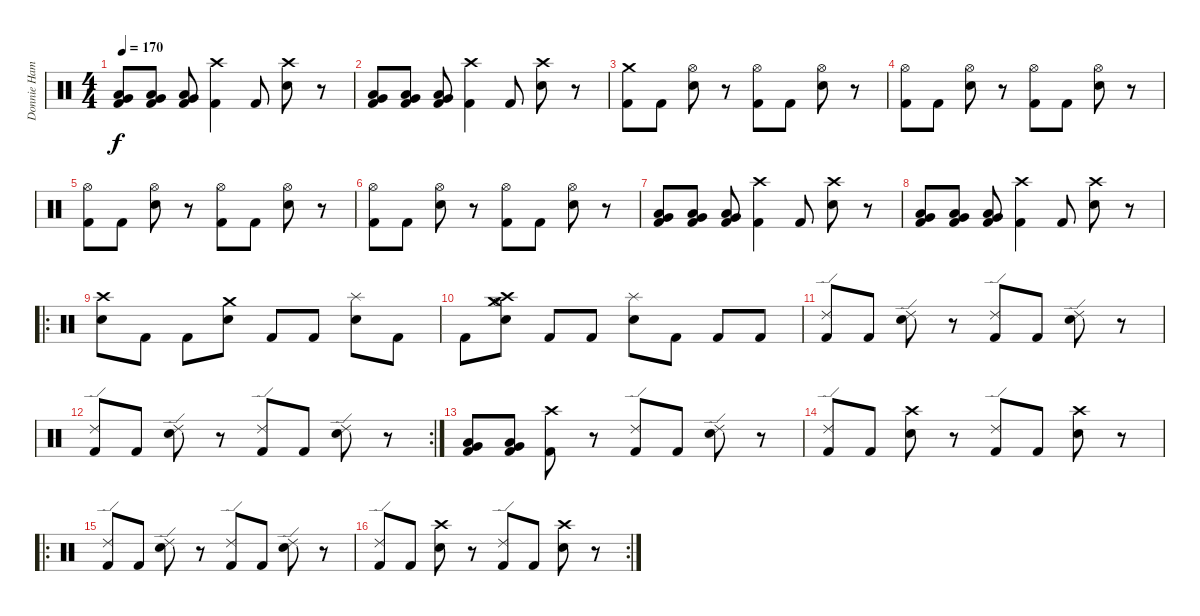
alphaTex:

\track ("Donnie Hamzik(Drums)" "Donnie Ham") {instrument percussion}
\staff {score}
\articulation defaults
\ts (4 4)
\tempo 170
\clef neutral
\ks c
("Kick (hit) 2" "Very Low Tom (hit)" "Low Floor Tom (hit)").8{dy f} ("Kick (hit) 2" "Very Low Tom (hit)" "Low Floor Tom (hit)").8 ("Kick (hit) 2" "Very Low Tom (hit)" "Low Floor Tom (hit)").8 ("Crash high (hit)" "Kick (hit) 2").4 "Kick (hit) 2".8 ("Crash high (hit)" "Snare (hit) 2").8 r.8 |
("Kick (hit) 2" "Very Low Tom (hit)" "Low Floor Tom (hit)").8 ("Kick (hit) 2" "Very Low Tom (hit)" "Low Floor Tom (hit)").8 ("Kick (hit) 2" "Very Low Tom (hit)" "Low Floor Tom (hit)").8 ("Crash high (hit)" "Kick (hit) 2").4 "Kick (hit) 2".8 ("Crash high (hit)" "Snare (hit) 2").8 r.8 |
("Crash medium (hit)" "Kick (hit) 2").8 "Kick (hit) 2".8 ("Hi-Hat (open)" "Snare (hit) 2").8 r.8 ("Hi-Hat (open)" "Kick (hit) 2").8 "Kick (hit) 2".8 ("Hi-Hat (open)" "Snare (hit) 2").8 r.8 |
("Hi-Hat (open)" "Kick (hit) 2").8 "Kick (hit) 2".8 ("Hi-Hat (open)" "Snare (hit) 2").8 r.8 ("Hi-Hat (open)" "Kick (hit) 2").8 "Kick (hit) 2".8 ("Hi-Hat (open)" "Snare (hit) 2").8 r.8 |
("Hi-Hat (open)" "Kick (hit) 2").8 "Kick (hit) 2".8 ("Hi-Hat (open)" "Snare (hit) 2").8 r.8 ("Hi-Hat (open)" "Kick (hit) 2").8 "Kick (hit) 2".8 ("Hi-Hat (open)" "Snare (hit) 2").8 r.8 |
("Hi-Hat (open)" "Kick (hit) 2").8 "Kick (hit) 2".8 ("Hi-Hat (open)" "Snare (hit) 2").8 r.8 ("Hi-Hat (open)" "Kick (hit) 2").8 "Kick (hit) 2".8 ("Hi-Hat (open)" "Snare (hit) 2").8 r.8 |
("Kick (hit) 2" "Very Low Tom (hit)" "Low Floor Tom (hit)").8 ("Kick (hit) 2" "Very Low Tom (hit)" "Low Floor Tom (hit)").8 ("Kick (hit) 2" "Very Low Tom (hit)" "Low Floor Tom (hit)").8 ("Crash high (hit)" "Kick (hit) 2").4 "Kick (hit) 2".8 ("Crash high (hit)" "Snare (hit) 2").8 r.8 |
("Kick (hit) 2" "Very Low Tom (hit)" "Low Floor Tom (hit)").8 ("Kick (hit) 2" "Very Low Tom (hit)" "Low Floor Tom (hit)").8 ("Kick (hit) 2" "Very Low Tom (hit)" "Low Floor Tom (hit)").8 ("Crash high (hit)" "Kick (hit) 2").4 "Kick (hit) 2".8 ("Crash high (hit)" "Snare (hit) 2").8 r.8 |
\ro
("Crash high (hit)" "Snare (hit) 2").8 "Kick (hit) 2".8 "Kick (hit) 2".8 ("Crash medium (hit)" "Snare (hit) 2").8 "Kick (hit) 2".8 "Kick (hit) 2".8 ("Splash (hit)" "Snare (hit) 2").8 "Kick (hit) 2".8 |
"Kick (hit) 2".8 ("Crash medium (hit)" "Crash high (hit)" "Hi-Hat (open)" "Snare (hit) 2").8 "Kick (hit) 2".8 "Kick (hit) 2".8 ("Splash (hit)" "Snare (hit) 2").8 "Kick (hit) 2".8 "Kick (hit) 2".8 "Kick (hit) 2".8 |
("Ride (edge) 2" "Kick (hit) 2").8 "Kick (hit) 2".8 ("Ride (edge) 2" "Snare (hit) 2").8 r.8 ("Ride (edge) 2" "Kick (hit) 2").8 "Kick (hit) 2".8 ("Ride (edge) 2" "Snare (hit) 2").8 r.8 |
\rc 2
("Ride (edge) 2" "Kick (hit) 2").8 "Kick (hit) 2".8 ("Ride (edge) 2" "Snare (hit) 2").8 r.8 ("Ride (edge) 2" "Kick (hit) 2").8 "Kick (hit) 2".8 ("Ride (edge) 2" "Snare (hit) 2").8 r.8 |
("Low Floor Tom (hit)" "Very Low Tom (hit)" "Kick (hit) 2").8 ("Very Low Tom (hit)" "Low Floor Tom (hit)" "Kick (hit) 2").8 ("Crash high (hit)" "Kick (hit) 2").8 r.8 ("Ride (edge) 2" "Kick (hit) 2").8 "Kick (hit) 2".8 ("Snare (hit) 2" "Ride (edge) 2").8 r.8 |
("Ride (edge) 2" "Kick (hit) 2").8 "Kick (hit) 2".8 ("Snare (hit) 2" "Crash high (hit)").8 r.8 ("Ride (edge) 2" "Kick (hit) 2").8 "Kick (hit) 2".8 ("Snare (hit) 2" "Crash high (hit)").8 r.8 |
\ro
("Ride (edge) 2" "Kick (hit) 2").8 "Kick (hit) 2".8 ("Snare (hit) 2" "Ride (edge) 2").8 r.8 ("Ride (edge) 2" "Kick (hit) 2").8 "Kick (hit) 2".8 ("Snare (hit) 2" "Ride (edge) 2").8 r.8 |
\rc 2
("Ride (edge) 2" "Kick (hit) 2").8 "Kick (hit) 2".8 ("Snare (hit) 2" "Crash high (hit)").8 r.8 ("Ride (edge) 2" "Kick (hit) 2").8 "Kick (hit) 2".8 ("Snare (hit) 2" "Crash high (hit)").8 r.8
